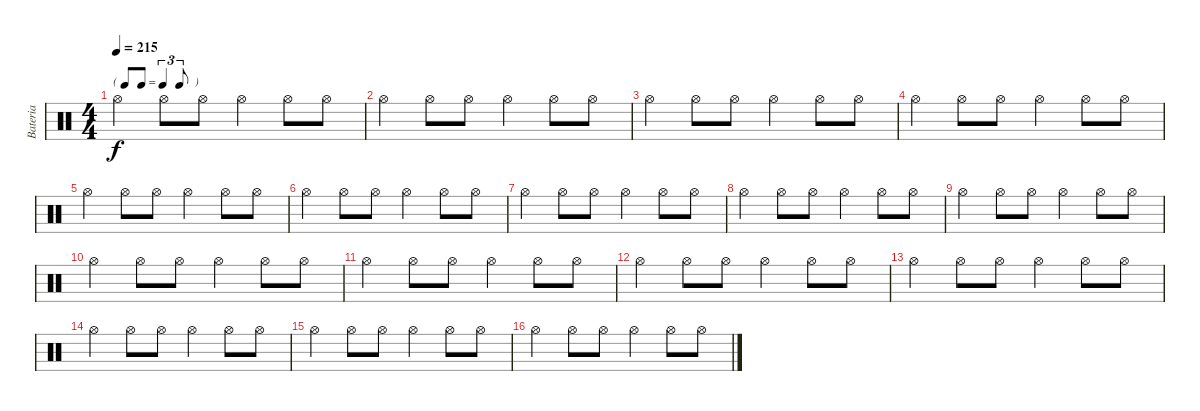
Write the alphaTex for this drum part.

\track ("Bateria" "Bateria") {instrument percussion}
\staff {score}
\articulation defaults
\ts (4 4)
\tf triplet8th
\tempo 215
\clef neutral
\ks c "Hi-Hat (open)".4{dy f} "Hi-Hat (open)".8 "Hi-Hat (open)".8 "Hi-Hat (open)".4 "Hi-Hat (open)".8 "Hi-Hat (open)".8
|
"Hi-Hat (open)".4 "Hi-Hat (open)".8 "Hi-Hat (open)".8 "Hi-Hat (open)".4 "Hi-Hat (open)".8 "Hi-Hat (open)".8 |
"Hi-Hat (open)".4 "Hi-Hat (open)".8 "Hi-Hat (open)".8 "Hi-Hat (open)".4 "Hi-Hat (open)".8 "Hi-Hat (open)".8 |
"Hi-Hat (open)".4 "Hi-Hat (open)".8 "Hi-Hat (open)".8 "Hi-Hat (open)".4 "Hi-Hat (open)".8 "Hi-Hat (open)".8 |
"Hi-Hat (open)".4 "Hi-Hat (open)".8 "Hi-Hat (open)".8 "Hi-Hat (open)".4 "Hi-Hat (open)".8 "Hi-Hat (open)".8 |
"Hi-Hat (open)".4 "Hi-Hat (open)".8 "Hi-Hat (open)".8 "Hi-Hat (open)".4 "Hi-Hat (open)".8 "Hi-Hat (open)".8 |
"Hi-Hat (open)".4 "Hi-Hat (open)".8 "Hi-Hat (open)".8 "Hi-Hat (open)".4 "Hi-Hat (open)".8 "Hi-Hat (open)".8 |
"Hi-Hat (open)".4 "Hi-Hat (open)".8 "Hi-Hat (open)".8 "Hi-Hat (open)".4 "Hi-Hat (open)".8 "Hi-Hat (open)".8 |
"Hi-Hat (open)".4 "Hi-Hat (open)".8 "Hi-Hat (open)".8 "Hi-Hat (open)".4 "Hi-Hat (open)".8 "Hi-Hat (open)".8 |
"Hi-Hat (open)".4 "Hi-Hat (open)".8 "Hi-Hat (open)".8 "Hi-Hat (open)".4 "Hi-Hat (open)".8 "Hi-Hat (open)".8 |
"Hi-Hat (open)".4 "Hi-Hat (open)".8 "Hi-Hat (open)".8 "Hi-Hat (open)".4 "Hi-Hat (open)".8 "Hi-Hat (open)".8 |
"Hi-Hat (open)".4 "Hi-Hat (open)".8 "Hi-Hat (open)".8 "Hi-Hat (open)".4 "Hi-Hat (open)".8 "Hi-Hat (open)".8 |
"Hi-Hat (open)".4 "Hi-Hat (open)".8 "Hi-Hat (open)".8 "Hi-Hat (open)".4 "Hi-Hat (open)".8 "Hi-Hat (open)".8 |
"Hi-Hat (open)".4 "Hi-Hat (open)".8 "Hi-Hat (open)".8 "Hi-Hat (open)".4 "Hi-Hat (open)".8 "Hi-Hat (open)".8 |
"Hi-Hat (open)".4 "Hi-Hat (open)".8 "Hi-Hat (open)".8 "Hi-Hat (open)".4 "Hi-Hat (open)".8 "Hi-Hat (open)".8 |
"Hi-Hat (open)".4 "Hi-Hat (open)".8 "Hi-Hat (open)".8 "Hi-Hat (open)".4 "Hi-Hat (open)".8 "Hi-Hat (open)".8
